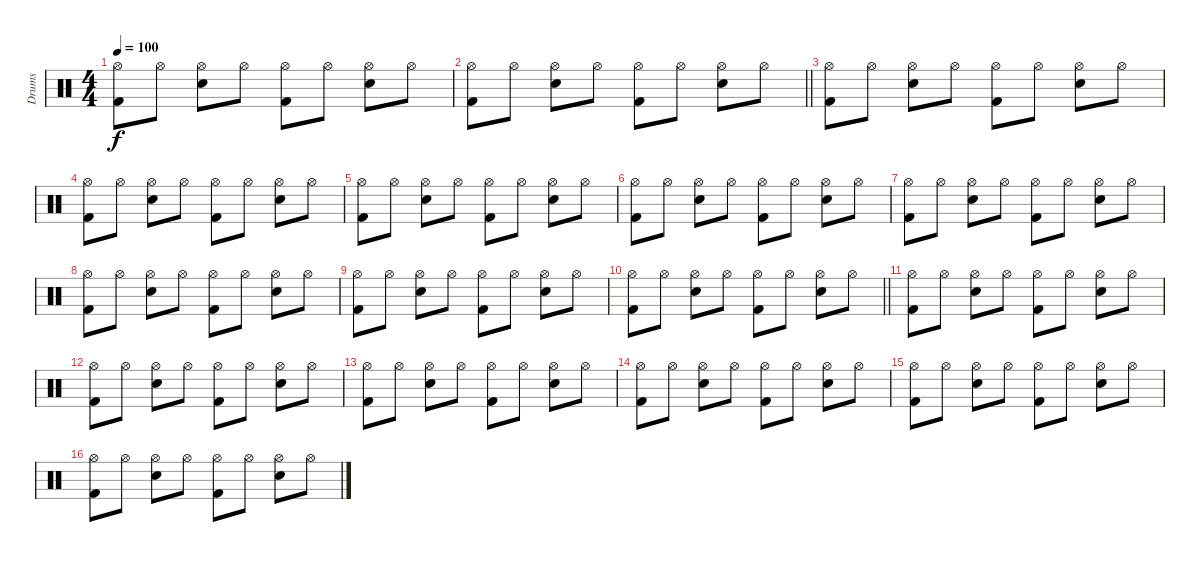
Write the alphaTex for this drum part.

\track ("Drums" "Drums") {instrument percussion}
\staff {score}
\articulation defaults
\ts (4 4)
\tempo 100
\clef neutral
\ks c
("Hi-Hat (open)" "Kick (hit) 2").8{dy f} "Hi-Hat (open)".8 ("Hi-Hat (open)" "Electric Snare (hit)").8 "Hi-Hat (open)".8 ("Hi-Hat (open)" "Kick (hit) 2").8 "Hi-Hat (open)".8 ("Hi-Hat (open)" "Electric Snare (hit)").8 "Hi-Hat (open)".8 |
\barLineRight lightlight
("Hi-Hat (open)" "Kick (hit) 2").8 "Hi-Hat (open)".8 ("Hi-Hat (open)" "Electric Snare (hit)").8 "Hi-Hat (open)".8 ("Hi-Hat (open)" "Kick (hit) 2").8 "Hi-Hat (open)".8 ("Hi-Hat (open)" "Electric Snare (hit)").8 "Hi-Hat (open)".8 |
("Hi-Hat (open)" "Kick (hit) 2").8 "Hi-Hat (open)".8 ("Hi-Hat (open)" "Electric Snare (hit)").8 "Hi-Hat (open)".8 ("Hi-Hat (open)" "Kick (hit) 2").8 "Hi-Hat (open)".8 ("Hi-Hat (open)" "Electric Snare (hit)").8 "Hi-Hat (open)".8 |
("Hi-Hat (open)" "Kick (hit) 2").8 "Hi-Hat (open)".8 ("Hi-Hat (open)" "Electric Snare (hit)").8 "Hi-Hat (open)".8 ("Hi-Hat (open)" "Kick (hit) 2").8 "Hi-Hat (open)".8 ("Hi-Hat (open)" "Electric Snare (hit)").8 "Hi-Hat (open)".8 |
("Hi-Hat (open)" "Kick (hit) 2").8 "Hi-Hat (open)".8 ("Hi-Hat (open)" "Electric Snare (hit)").8 "Hi-Hat (open)".8 ("Hi-Hat (open)" "Kick (hit) 2").8 "Hi-Hat (open)".8 ("Hi-Hat (open)" "Electric Snare (hit)").8 "Hi-Hat (open)".8 |
("Hi-Hat (open)" "Kick (hit) 2").8 "Hi-Hat (open)".8 ("Hi-Hat (open)" "Electric Snare (hit)").8 "Hi-Hat (open)".8 ("Hi-Hat (open)" "Kick (hit) 2").8 "Hi-Hat (open)".8 ("Hi-Hat (open)" "Electric Snare (hit)").8 "Hi-Hat (open)".8 |
("Hi-Hat (open)" "Kick (hit) 2").8 "Hi-Hat (open)".8 ("Hi-Hat (open)" "Electric Snare (hit)").8 "Hi-Hat (open)".8 ("Hi-Hat (open)" "Kick (hit) 2").8 "Hi-Hat (open)".8 ("Hi-Hat (open)" "Electric Snare (hit)").8 "Hi-Hat (open)".8 |
("Hi-Hat (open)" "Kick (hit) 2").8 "Hi-Hat (open)".8 ("Hi-Hat (open)" "Electric Snare (hit)").8 "Hi-Hat (open)".8 ("Hi-Hat (open)" "Kick (hit) 2").8 "Hi-Hat (open)".8 ("Hi-Hat (open)" "Electric Snare (hit)").8 "Hi-Hat (open)".8 |
("Hi-Hat (open)" "Kick (hit) 2").8 "Hi-Hat (open)".8 ("Hi-Hat (open)" "Electric Snare (hit)").8 "Hi-Hat (open)".8 ("Hi-Hat (open)" "Kick (hit) 2").8 "Hi-Hat (open)".8 ("Hi-Hat (open)" "Electric Snare (hit)").8 "Hi-Hat (open)".8 |
\barLineRight lightlight
("Hi-Hat (open)" "Kick (hit) 2").8 "Hi-Hat (open)".8 ("Hi-Hat (open)" "Electric Snare (hit)").8 "Hi-Hat (open)".8 ("Hi-Hat (open)" "Kick (hit) 2").8 "Hi-Hat (open)".8 ("Hi-Hat (open)" "Electric Snare (hit)").8 "Hi-Hat (open)".8 |
("Hi-Hat (open)" "Kick (hit) 2").8 "Hi-Hat (open)".8 ("Hi-Hat (open)" "Electric Snare (hit)").8 "Hi-Hat (open)".8 ("Hi-Hat (open)" "Kick (hit) 2").8 "Hi-Hat (open)".8 ("Hi-Hat (open)" "Electric Snare (hit)").8 "Hi-Hat (open)".8 |
("Hi-Hat (open)" "Kick (hit) 2").8 "Hi-Hat (open)".8 ("Hi-Hat (open)" "Electric Snare (hit)").8 "Hi-Hat (open)".8 ("Hi-Hat (open)" "Kick (hit) 2").8 "Hi-Hat (open)".8 ("Hi-Hat (open)" "Electric Snare (hit)").8 "Hi-Hat (open)".8 |
("Hi-Hat (open)" "Kick (hit) 2").8 "Hi-Hat (open)".8 ("Hi-Hat (open)" "Electric Snare (hit)").8 "Hi-Hat (open)".8 ("Hi-Hat (open)" "Kick (hit) 2").8 "Hi-Hat (open)".8 ("Hi-Hat (open)" "Electric Snare (hit)").8 "Hi-Hat (open)".8 |
("Hi-Hat (open)" "Kick (hit) 2").8 "Hi-Hat (open)".8 ("Hi-Hat (open)" "Electric Snare (hit)").8 "Hi-Hat (open)".8 ("Hi-Hat (open)" "Kick (hit) 2").8 "Hi-Hat (open)".8 ("Hi-Hat (open)" "Electric Snare (hit)").8 "Hi-Hat (open)".8 |
("Hi-Hat (open)" "Kick (hit) 2").8 "Hi-Hat (open)".8 ("Hi-Hat (open)" "Electric Snare (hit)").8 "Hi-Hat (open)".8 ("Hi-Hat (open)" "Kick (hit) 2").8 "Hi-Hat (open)".8 ("Hi-Hat (open)" "Electric Snare (hit)").8 "Hi-Hat (open)".8 |
("Hi-Hat (open)" "Kick (hit) 2").8 "Hi-Hat (open)".8 ("Hi-Hat (open)" "Electric Snare (hit)").8 "Hi-Hat (open)".8 ("Hi-Hat (open)" "Kick (hit) 2").8 "Hi-Hat (open)".8 ("Hi-Hat (open)" "Electric Snare (hit)").8 "Hi-Hat (open)".8
